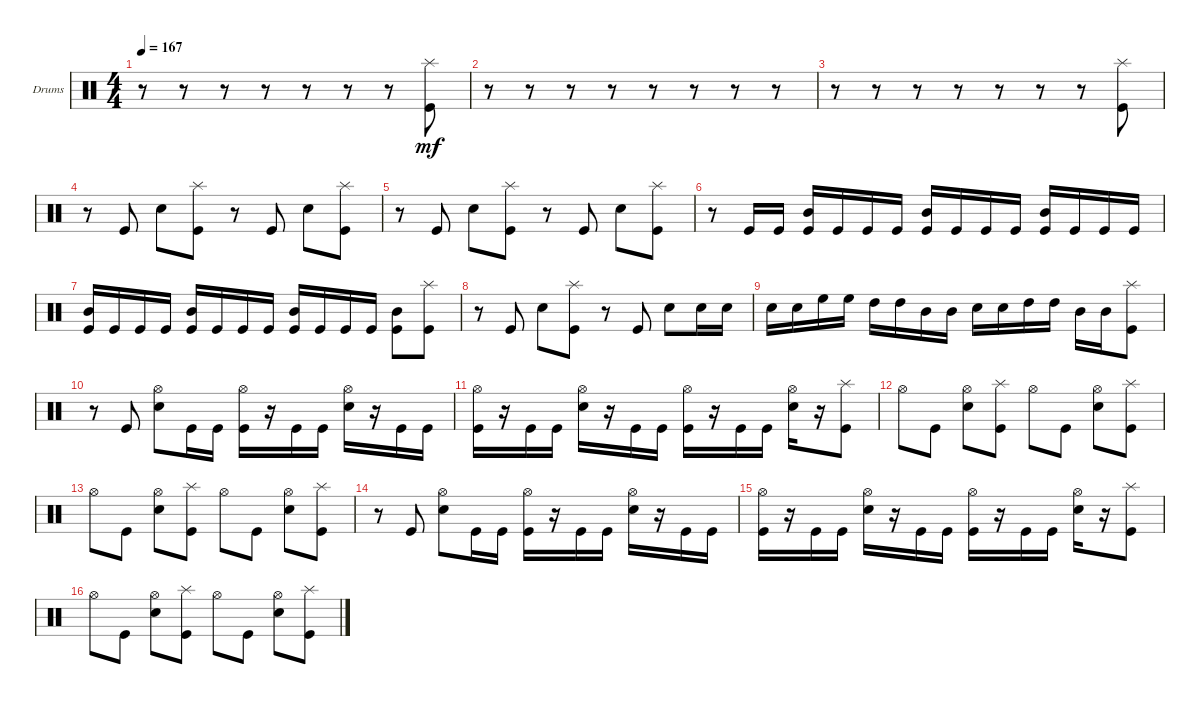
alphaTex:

\bracketExtendMode groupsimilarinstruments
\firstSystemTrackNameOrientation horizontal
\otherSystemsTrackNameOrientation horizontal
\track ("Drumkit" "Drums") {instrument percussion}
\staff {score}
\articulation defaults
\ts (4 4)
\tempo 167
\clef neutral
\ks c
r.8{dy mf} r.8 r.8 r.8 r.8 r.8 r.8 ("Kick (hit)" "Splash (hit)").8 |
r.8 r.8 r.8 r.8 r.8 r.8 r.8 r.8 |
r.8 r.8 r.8 r.8 r.8 r.8 r.8 ("Kick (hit)" "Splash (hit)").8 |
r.8 "Kick (hit)".8 "Snare (hit) 2".8 ("Kick (hit)" "Splash (hit)").8 r.8 "Kick (hit)".8 "Snare (hit) 2".8 ("Kick (hit)" "Splash (hit)").8 |
r.8 "Kick (hit)".8 "Snare (hit) 2".8 ("Kick (hit)" "Splash (hit)").8 r.8 "Kick (hit)".8 "Snare (hit) 2".8 ("Kick (hit)" "Splash (hit)").8 |
r.8 "Kick (hit)".16 "Kick (hit)".16 ("Kick (hit)" "Mid Tom (hit)").16 "Kick (hit)".16 "Kick (hit)".16 "Kick (hit)".16 ("Kick (hit)" "Mid Tom (hit)").16 "Kick (hit)".16 "Kick (hit)".16 "Kick (hit)".16 ("Kick (hit)" "Mid Tom (hit)").16 "Kick (hit)".16 "Kick (hit)".16 "Kick (hit)".16 |
("Kick (hit)" "Mid Tom (hit)").16 "Kick (hit)".16 "Kick (hit)".16 "Kick (hit)".16 ("Kick (hit)" "Mid Tom (hit)").16 "Kick (hit)".16 "Kick (hit)".16 "Kick (hit)".16 ("Kick (hit)" "Mid Tom (hit)").16 "Kick (hit)".16 "Kick (hit)".16 "Kick (hit)".16 ("Kick (hit)" "Mid Tom (hit)").8 ("Kick (hit)" "Splash (hit)").8 |
r.8 "Kick (hit)".8 "Snare (hit) 2".8 ("Kick (hit)" "Splash (hit)").8 r.8 "Kick (hit)".8 "Snare (hit) 2".8 "Snare (hit) 2".16 "Snare (hit) 2".16 |
"Snare (hit) 2".16 "Snare (hit) 2".16 "High Floor Tom (hit)".16 "High Floor Tom (hit)".16 "High Tom (hit)".16 "High Tom (hit)".16 "Mid Tom (hit)".16 "Mid Tom (hit)".16 "Snare (hit) 2".16 "Snare (hit) 2".16 "High Tom (hit)".16 "High Tom (hit)".16 "Mid Tom (hit)".16 "Mid Tom (hit)".16 ("Kick (hit)" "Splash (hit)").8 |
r.8 "Kick (hit)".8 ("Snare (hit) 2" "Hi-Hat (open)").8 "Kick (hit)".16 "Kick (hit)".16 ("Kick (hit)" "Hi-Hat (open)").16 r.16 "Kick (hit)".16 "Kick (hit)".16 ("Snare (hit) 2" "Hi-Hat (open)").16 r.16 "Kick (hit)".16 "Kick (hit)".16 |
("Kick (hit)" "Hi-Hat (open)").16 r.16 "Kick (hit)".16 "Kick (hit)".16 ("Snare (hit) 2" "Hi-Hat (open)").16 r.16 "Kick (hit)".16 "Kick (hit)".16 ("Kick (hit)" "Hi-Hat (open)").16 r.16 "Kick (hit)".16 "Kick (hit)".16 ("Snare (hit) 2" "Hi-Hat (open)").16 r.16 ("Kick (hit)" "Splash (hit)").8 |
"Hi-Hat (open)".8 "Kick (hit)".8 ("Snare (hit) 2" "Hi-Hat (open)").8 ("Kick (hit)" "Splash (hit)").8 "Hi-Hat (open)".8 "Kick (hit)".8 ("Snare (hit) 2" "Hi-Hat (open)").8 ("Kick (hit)" "Splash (hit)").8 |
"Hi-Hat (open)".8 "Kick (hit)".8 ("Snare (hit) 2" "Hi-Hat (open)").8 ("Kick (hit)" "Splash (hit)").8 "Hi-Hat (open)".8 "Kick (hit)".8 ("Snare (hit) 2" "Hi-Hat (open)").8 ("Kick (hit)" "Splash (hit)").8 |
r.8 "Kick (hit)".8 ("Snare (hit) 2" "Hi-Hat (open)").8 "Kick (hit)".16 "Kick (hit)".16 ("Kick (hit)" "Hi-Hat (open)").16 r.16 "Kick (hit)".16 "Kick (hit)".16 ("Snare (hit) 2" "Hi-Hat (open)").16 r.16 "Kick (hit)".16 "Kick (hit)".16 |
("Kick (hit)" "Hi-Hat (open)").16 r.16 "Kick (hit)".16 "Kick (hit)".16 ("Snare (hit) 2" "Hi-Hat (open)").16 r.16 "Kick (hit)".16 "Kick (hit)".16 ("Kick (hit)" "Hi-Hat (open)").16 r.16 "Kick (hit)".16 "Kick (hit)".16 ("Snare (hit) 2" "Hi-Hat (open)").16 r.16 ("Kick (hit)" "Splash (hit)").8 |
"Hi-Hat (open)".8 "Kick (hit)".8 ("Snare (hit) 2" "Hi-Hat (open)").8 ("Kick (hit)" "Splash (hit)").8 "Hi-Hat (open)".8 "Kick (hit)".8 ("Snare (hit) 2" "Hi-Hat (open)").8 ("Kick (hit)" "Splash (hit)").8
